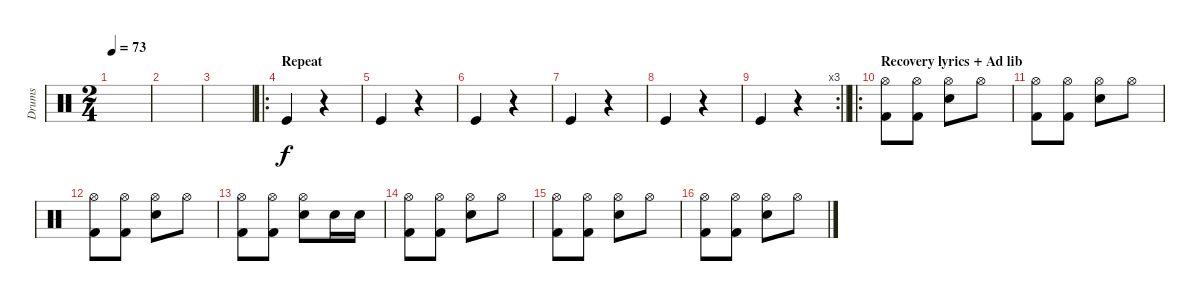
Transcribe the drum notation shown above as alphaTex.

\track ("Drums" "Drums") {instrument percussion}
\staff {score}
\articulation defaults
\ts (2 4)
\tempo 73
\clef neutral
\ks c
|
|
|
\ro
\section ("" "Repeat")
"Kick (hit)".4 r.4 |
"Kick (hit)".4 r.4 |
"Kick (hit)".4 r.4 |
"Kick (hit)".4 r.4 |
"Kick (hit)".4 r.4 |
\rc 3
\barLineRight lightlight "Kick (hit)".4
r.4 |
\ro
\section ("" "Recovery lyrics + Ad lib")
("Hi-Hat (open)" "Kick (hit) 2").8 ("Hi-Hat (open)" "Kick (hit) 2").8 ("Electric Snare (hit)" "Hi-Hat (open)").8 "Hi-Hat (open)".8 |
("Hi-Hat (open)" "Kick (hit) 2").8 ("Hi-Hat (open)" "Kick (hit) 2").8 ("Electric Snare (hit)" "Hi-Hat (open)").8 "Hi-Hat (open)".8 |
("Hi-Hat (open)" "Kick (hit) 2").8 ("Hi-Hat (open)" "Kick (hit) 2").8 ("Electric Snare (hit)" "Hi-Hat (open)").8 "Hi-Hat (open)".8 |
("Hi-Hat (open)" "Kick (hit) 2").8 ("Hi-Hat (open)" "Kick (hit) 2").8 ("Electric Snare (hit)" "Hi-Hat (open)").8 "Electric Snare (hit)".16 "Electric Snare (hit)".16 |
("Hi-Hat (open)" "Kick (hit) 2").8 ("Hi-Hat (open)" "Kick (hit) 2").8 ("Electric Snare (hit)" "Hi-Hat (open)").8 "Hi-Hat (open)".8 |
("Hi-Hat (open)" "Kick (hit) 2").8 ("Hi-Hat (open)" "Kick (hit) 2").8 ("Electric Snare (hit)" "Hi-Hat (open)").8 "Hi-Hat (open)".8 |
("Hi-Hat (open)" "Kick (hit) 2").8 ("Hi-Hat (open)" "Kick (hit) 2").8 ("Electric Snare (hit)" "Hi-Hat (open)").8 "Hi-Hat (open)".8
